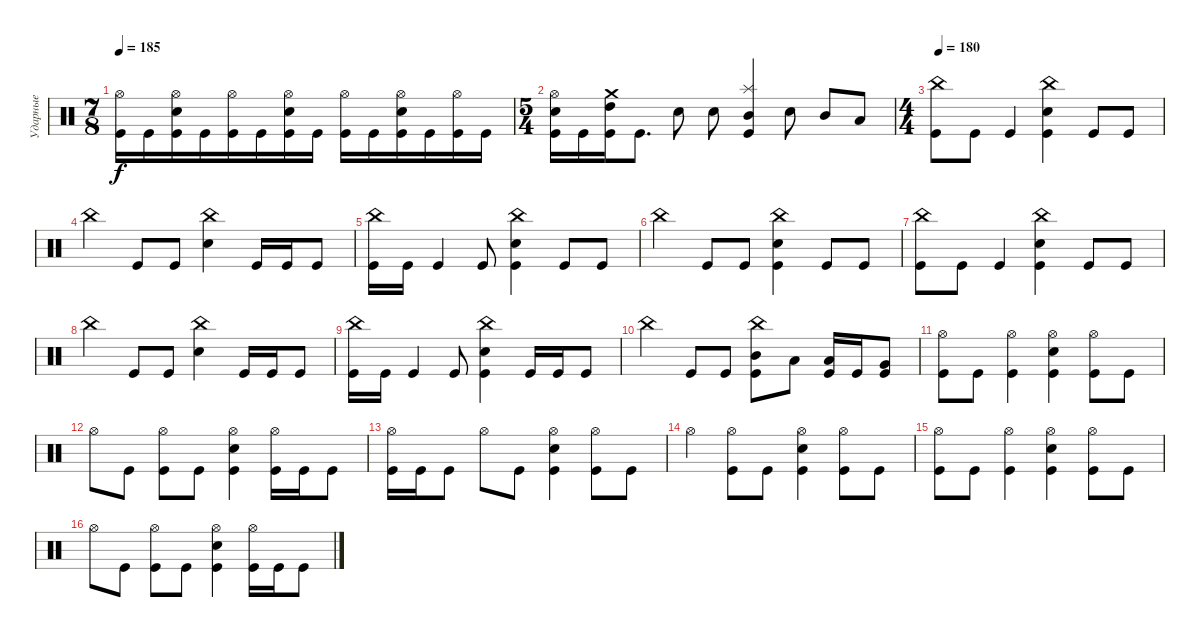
\track ("Ударные" "Ударные") {instrument percussion}
\staff {score}
\articulation defaults
\ts (7 8)
\tempo 185
\clef neutral
\ks c
("Hi-Hat (open)" "Kick (hit)").16{dy f} "Kick (hit)".16 ("Hi-Hat (open)" "Snare (hit) 2" "Kick (hit)").16 "Kick (hit)".16 ("Hi-Hat (open)" "Kick (hit)").16 "Kick (hit)".16 ("Hi-Hat (open)" "Snare (hit) 2" "Kick (hit)").16 "Kick (hit)".16 ("Hi-Hat (open)" "Kick (hit)").16 "Kick (hit)".16 ("Hi-Hat (open)" "Snare (hit) 2" "Kick (hit)").16 "Kick (hit)".16 ("Hi-Hat (open)" "Kick (hit)").16 "Kick (hit)".16 |
\ts (5 4)
("Hi-Hat (open)" "Snare (hit) 2" "Kick (hit)").16 "Kick (hit)".16 ("Crash medium (hit)" "High Tom (hit)" "Kick (hit)").16 "Kick (hit)".8{d} "Snare (hit) 2".8 "Snare (hit) 2".8 ("Splash (hit)" "Mid Tom (hit)" "Kick (hit)").4 "Snare (hit) 2".8 "Mid Tom (hit)".8 "Low Tom (hit)".8 |
\ts (4 4)
\tempo 180
("China (hit)" "Kick (hit)").8 "Kick (hit)".8 "Kick (hit)".4 ("China (hit)" "Snare (hit) 2" "Kick (hit)").4 "Kick (hit)".8 "Kick (hit)".8 |
"China (hit)".4 "Kick (hit)".8 "Kick (hit)".8 ("China (hit)" "Snare (hit) 2").4 "Kick (hit)".16 "Kick (hit)".16 "Kick (hit)".8 |
("China (hit)" "Kick (hit)").16 "Kick (hit)".16 "Kick (hit)".4 "Kick (hit)".8 ("China (hit)" "Snare (hit) 2" "Kick (hit)").4 "Kick (hit)".8 "Kick (hit)".8 |
"China (hit)".4 "Kick (hit)".8 "Kick (hit)".8 ("China (hit)" "Snare (hit) 2" "Kick (hit)").4 "Kick (hit)".8 "Kick (hit)".8 |
("China (hit)" "Kick (hit)").8 "Kick (hit)".8 "Kick (hit)".4 ("China (hit)" "Snare (hit) 2" "Kick (hit)").4 "Kick (hit)".8 "Kick (hit)".8 |
"China (hit)".4 "Kick (hit)".8 "Kick (hit)".8 ("China (hit)" "Snare (hit) 2").4 "Kick (hit)".16 "Kick (hit)".16 "Kick (hit)".8 |
("China (hit)" "Kick (hit)").16 "Kick (hit)".16 "Kick (hit)".4 "Kick (hit)".8 ("China (hit)" "Snare (hit) 2" "Kick (hit)").4 "Kick (hit)".16 "Kick (hit)".16 "Kick (hit)".8 |
"China (hit)".4 "Kick (hit)".8 "Kick (hit)".8 ("China (hit)" "Mid Tom (hit)" "Kick (hit)").8 "Low Tom (hit)".8 ("Low Tom (hit)" "Kick (hit)").16 "Kick (hit)".16 ("Very Low Tom (hit)" "Kick (hit)").8 |
("Hi-Hat (open)" "Kick (hit)").8 "Kick (hit)".8 ("Hi-Hat (open)" "Kick (hit)").4 ("Hi-Hat (open)" "Snare (hit) 2" "Kick (hit)").4 ("Hi-Hat (open)" "Kick (hit)").8 "Kick (hit)".8 |
"Hi-Hat (open)".8 "Kick (hit)".8 ("Hi-Hat (open)" "Kick (hit)").8 "Kick (hit)".8 ("Hi-Hat (open)" "Snare (hit) 2" "Kick (hit)").4 ("Hi-Hat (open)" "Kick (hit)").16 "Kick (hit)".16 "Kick (hit)".8 |
("Hi-Hat (open)" "Kick (hit)").16 "Kick (hit)".16 "Kick (hit)".8 "Hi-Hat (open)".8 "Kick (hit)".8 ("Hi-Hat (open)" "Snare (hit) 2" "Kick (hit)").4 ("Hi-Hat (open)" "Kick (hit)").8 "Kick (hit)".8 |
"Hi-Hat (open)".4 ("Hi-Hat (open)" "Kick (hit)").8 "Kick (hit)".8 ("Hi-Hat (open)" "Snare (hit) 2" "Kick (hit)").4 ("Hi-Hat (open)" "Kick (hit)").8 "Kick (hit)".8 |
("Hi-Hat (open)" "Kick (hit)").8 "Kick (hit)".8 ("Hi-Hat (open)" "Kick (hit)").4 ("Hi-Hat (open)" "Snare (hit) 2" "Kick (hit)").4 ("Hi-Hat (open)" "Kick (hit)").8 "Kick (hit)".8 |
"Hi-Hat (open)".8 "Kick (hit)".8 ("Hi-Hat (open)" "Kick (hit)").8 "Kick (hit)".8 ("Hi-Hat (open)" "Snare (hit) 2" "Kick (hit)").4 ("Hi-Hat (open)" "Kick (hit)").16 "Kick (hit)".16 "Kick (hit)".8
